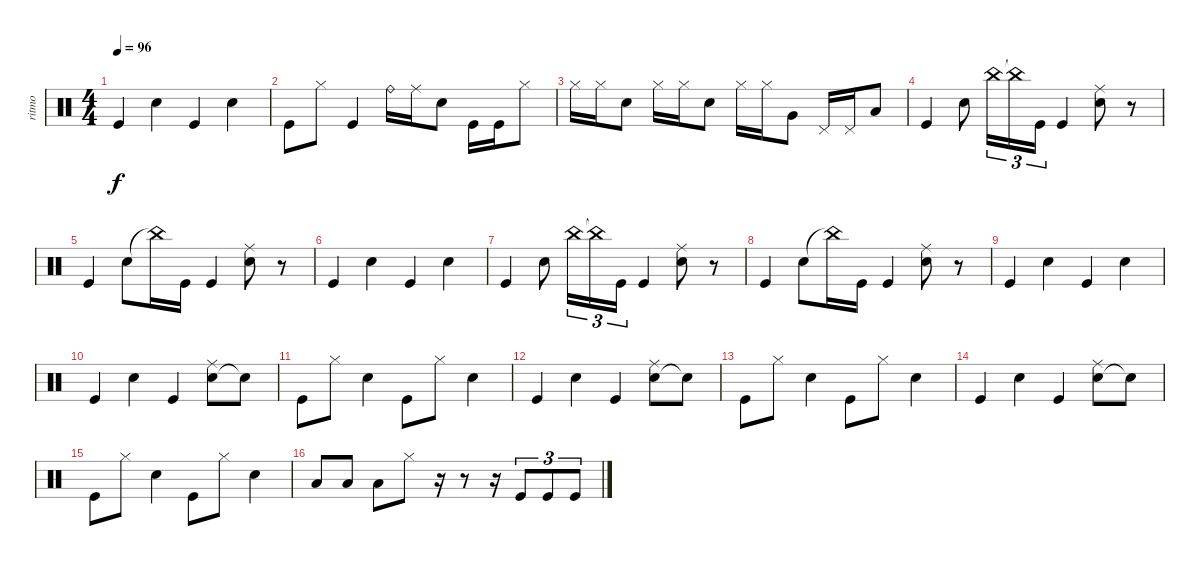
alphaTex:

\track ("ritmo" "ritmo") {instrument percussion}
\staff {score}
\articulation defaults
\ts (4 4)
\tempo 96
\clef neutral
\ks c "Kick (hit)".4{dy f} "Snare (hit) 2".4 "Kick (hit)".4 "Snare (hit) 2".4
|
"Kick (hit)".8 "Hi-Hat (closed)".8 "Kick (hit)".4 "Ride (bell)".16 "Ride (middle)".16 "Snare (hit) 2".8 "Kick (hit)".16 "Kick (hit)".16 "Hi-Hat (closed)".8 |
"Hi-Hat (closed)".16 "Hi-Hat (closed)".16 "Snare (hit) 2".8 "Hi-Hat (closed)".16 "Hi-Hat (closed)".16 "Electric Snare (hit)".8 "Hi-Hat (closed)".16 "Hi-Hat (closed)".16 "Very Low Tom (hit)".8 "Pedal Hi-Hat (hit)".16 "Pedal Hi-Hat (hit)".16 "Low Tom (hit)".8 |
"Kick (hit)".4 "Snare (hit) 2".8 "China (hit)".16{tu (3 2)} "China (hit)"{t}.16{tu (3 2)} "Kick (hit)".16{tu (3 2)} "Kick (hit)".4 ("Snare (hit) 2" "Ride (middle)").8 r.8 |
"Kick (hit)".4 "Snare (hit) 2".8 "China (hit)"{t}.16 "Kick (hit)".16 "Kick (hit)".4 ("Snare (hit) 2" "Ride (middle)").8 r.8 |
"Kick (hit)".4 "Snare (hit) 2".4 "Kick (hit)".4 "Snare (hit) 2".4 |
"Kick (hit)".4 "Snare (hit) 2".8 "China (hit)".16{tu (3 2)} "China (hit)"{t}.16{tu (3 2)} "Kick (hit)".16{tu (3 2)} "Kick (hit)".4 ("Snare (hit) 2" "Ride (middle)").8 r.8 |
"Kick (hit)".4 "Snare (hit) 2".8 "China (hit)"{t}.16 "Kick (hit)".16 "Kick (hit)".4 ("Snare (hit) 2" "Ride (middle)").8 r.8 |
"Kick (hit)".4 "Snare (hit) 2".4 "Kick (hit)".4 "Snare (hit) 2".4 |
"Kick (hit)".4 "Snare (hit) 2".4 "Kick (hit)".4 ("Snare (hit) 2" "Ride (middle)").8 "Snare (hit)"{t}.8 |
"Kick (hit)".8 "Hi-Hat (closed)".8 "Snare (hit) 2".4 "Kick (hit)".8 "Hi-Hat (closed)".8 "Snare (hit) 2".4 |
"Kick (hit)".4 "Snare (hit) 2".4 "Kick (hit)".4 ("Snare (hit) 2" "Ride (middle)").8 "Snare (hit)"{t}.8 |
"Kick (hit)".8 "Hi-Hat (closed)".8 "Snare (hit) 2".4 "Kick (hit)".8 "Hi-Hat (closed)".8 "Snare (hit) 2".4 |
"Kick (hit)".4 "Snare (hit) 2".4 "Kick (hit)".4 ("Snare (hit) 2" "Ride (middle)").8 "Snare (hit)"{t}.8 |
"Kick (hit)".8 "Hi-Hat (closed)".8 "Snare (hit) 2".4 "Kick (hit)".8 "Hi-Hat (closed)".8 "Snare (hit) 2".4 |
"Low Floor Tom (hit)".8 "Low Floor Tom (hit)".8 "Low Floor Tom (hit)".8 "Hi-Hat (closed)".8 r.16 r.8 r.16 "Kick (hit)".8{tu (3 2)} "Kick (hit)".8{tu (3 2)} "Kick (hit)".8{tu (3 2)}
